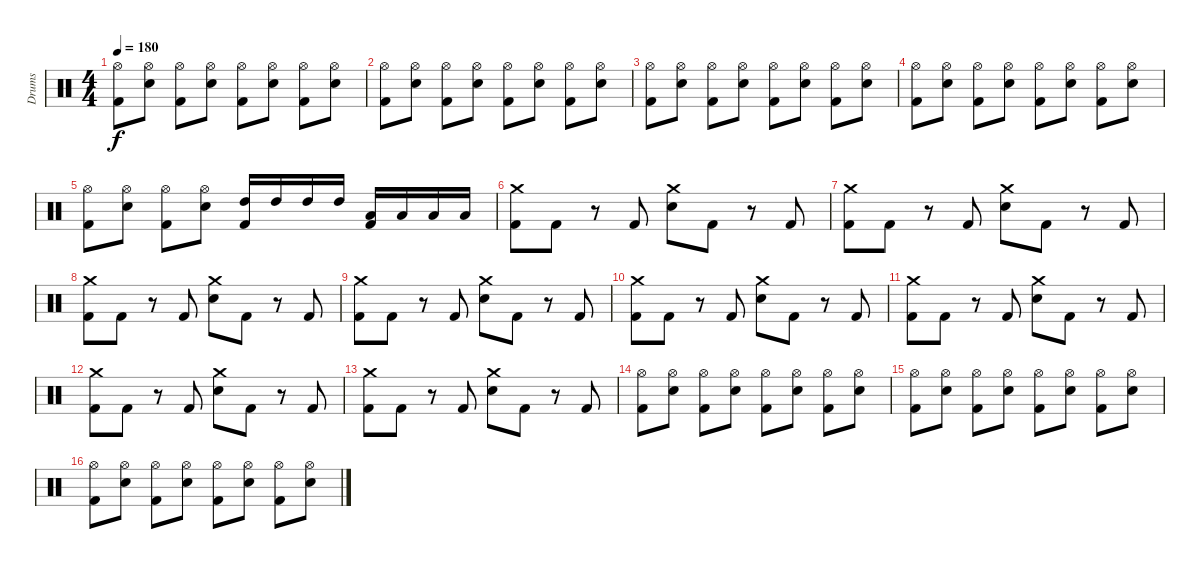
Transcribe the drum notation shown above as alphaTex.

\track ("Drums" "Drums") {instrument percussion}
\staff {score}
\articulation defaults
\ts (4 4)
\tempo 180
\clef neutral
\ks c
("Hi-Hat (open)" "Kick (hit) 2").8{dy f} ("Hi-Hat (open)" "Snare (hit) 2").8 ("Hi-Hat (open)" "Kick (hit) 2").8 ("Hi-Hat (open)" "Snare (hit) 2").8 ("Hi-Hat (open)" "Kick (hit) 2").8 ("Hi-Hat (open)" "Snare (hit) 2").8 ("Hi-Hat (open)" "Kick (hit) 2").8 ("Hi-Hat (open)" "Snare (hit) 2").8 |
("Hi-Hat (open)" "Kick (hit) 2").8 ("Hi-Hat (open)" "Snare (hit) 2").8 ("Hi-Hat (open)" "Kick (hit) 2").8 ("Hi-Hat (open)" "Snare (hit) 2").8 ("Hi-Hat (open)" "Kick (hit) 2").8 ("Hi-Hat (open)" "Snare (hit) 2").8 ("Hi-Hat (open)" "Kick (hit) 2").8 ("Hi-Hat (open)" "Snare (hit) 2").8 |
("Hi-Hat (open)" "Kick (hit) 2").8 ("Hi-Hat (open)" "Snare (hit) 2").8 ("Hi-Hat (open)" "Kick (hit) 2").8 ("Hi-Hat (open)" "Snare (hit) 2").8 ("Hi-Hat (open)" "Kick (hit) 2").8 ("Hi-Hat (open)" "Snare (hit) 2").8 ("Hi-Hat (open)" "Kick (hit) 2").8 ("Hi-Hat (open)" "Snare (hit) 2").8 |
("Hi-Hat (open)" "Kick (hit) 2").8 ("Hi-Hat (open)" "Snare (hit) 2").8 ("Hi-Hat (open)" "Kick (hit) 2").8 ("Hi-Hat (open)" "Snare (hit) 2").8 ("Hi-Hat (open)" "Kick (hit) 2").8 ("Hi-Hat (open)" "Snare (hit) 2").8 ("Hi-Hat (open)" "Kick (hit) 2").8 ("Hi-Hat (open)" "Snare (hit) 2").8 |
("Hi-Hat (open)" "Kick (hit) 2").8 ("Hi-Hat (open)" "Snare (hit) 2").8 ("Hi-Hat (open)" "Kick (hit) 2").8 ("Hi-Hat (open)" "Snare (hit) 2").8 ("High Tom (hit)" "Kick (hit) 2").16 "High Tom (hit)".16 "High Tom (hit)".16 "High Tom (hit)".16 ("Low Tom (hit)" "Kick (hit) 2").16 "Low Tom (hit)".16 "Low Tom (hit)".16 "Low Tom (hit)".16 |
("Crash medium (hit)" "Kick (hit) 2").8 "Kick (hit) 2".8 r.8 "Kick (hit) 2".8 ("Crash medium (hit)" "Snare (hit) 2").8 "Kick (hit) 2".8 r.8 "Kick (hit) 2".8 |
("Crash medium (hit)" "Kick (hit) 2").8 "Kick (hit) 2".8 r.8 "Kick (hit) 2".8 ("Crash medium (hit)" "Snare (hit) 2").8 "Kick (hit) 2".8 r.8 "Kick (hit) 2".8 |
("Crash medium (hit)" "Kick (hit) 2").8 "Kick (hit) 2".8 r.8 "Kick (hit) 2".8 ("Crash medium (hit)" "Snare (hit) 2").8 "Kick (hit) 2".8 r.8 "Kick (hit) 2".8 |
("Crash medium (hit)" "Kick (hit) 2").8 "Kick (hit) 2".8 r.8 "Kick (hit) 2".8 ("Crash medium (hit)" "Snare (hit) 2").8 "Kick (hit) 2".8 r.8 "Kick (hit) 2".8 |
("Crash medium (hit)" "Kick (hit) 2").8 "Kick (hit) 2".8 r.8 "Kick (hit) 2".8 ("Crash medium (hit)" "Snare (hit) 2").8 "Kick (hit) 2".8 r.8 "Kick (hit) 2".8 |
("Crash medium (hit)" "Kick (hit) 2").8 "Kick (hit) 2".8 r.8 "Kick (hit) 2".8 ("Crash medium (hit)" "Snare (hit) 2").8 "Kick (hit) 2".8 r.8 "Kick (hit) 2".8 |
("Crash medium (hit)" "Kick (hit) 2").8 "Kick (hit) 2".8 r.8 "Kick (hit) 2".8 ("Crash medium (hit)" "Snare (hit) 2").8 "Kick (hit) 2".8 r.8 "Kick (hit) 2".8 |
("Crash medium (hit)" "Kick (hit) 2").8 "Kick (hit) 2".8 r.8 "Kick (hit) 2".8 ("Crash medium (hit)" "Snare (hit) 2").8 "Kick (hit) 2".8 r.8 "Kick (hit) 2".8 |
("Hi-Hat (open)" "Kick (hit) 2").8 ("Hi-Hat (open)" "Snare (hit) 2").8 ("Hi-Hat (open)" "Kick (hit) 2").8 ("Hi-Hat (open)" "Snare (hit) 2").8 ("Hi-Hat (open)" "Kick (hit) 2").8 ("Hi-Hat (open)" "Snare (hit) 2").8 ("Hi-Hat (open)" "Kick (hit) 2").8 ("Hi-Hat (open)" "Snare (hit) 2").8 |
("Hi-Hat (open)" "Kick (hit) 2").8 ("Hi-Hat (open)" "Snare (hit) 2").8 ("Hi-Hat (open)" "Kick (hit) 2").8 ("Hi-Hat (open)" "Snare (hit) 2").8 ("Hi-Hat (open)" "Kick (hit) 2").8 ("Hi-Hat (open)" "Snare (hit) 2").8 ("Hi-Hat (open)" "Kick (hit) 2").8 ("Hi-Hat (open)" "Snare (hit) 2").8 |
("Hi-Hat (open)" "Kick (hit) 2").8 ("Hi-Hat (open)" "Snare (hit) 2").8 ("Hi-Hat (open)" "Kick (hit) 2").8 ("Hi-Hat (open)" "Snare (hit) 2").8 ("Hi-Hat (open)" "Kick (hit) 2").8 ("Hi-Hat (open)" "Snare (hit) 2").8 ("Hi-Hat (open)" "Kick (hit) 2").8 ("Hi-Hat (open)" "Snare (hit) 2").8
